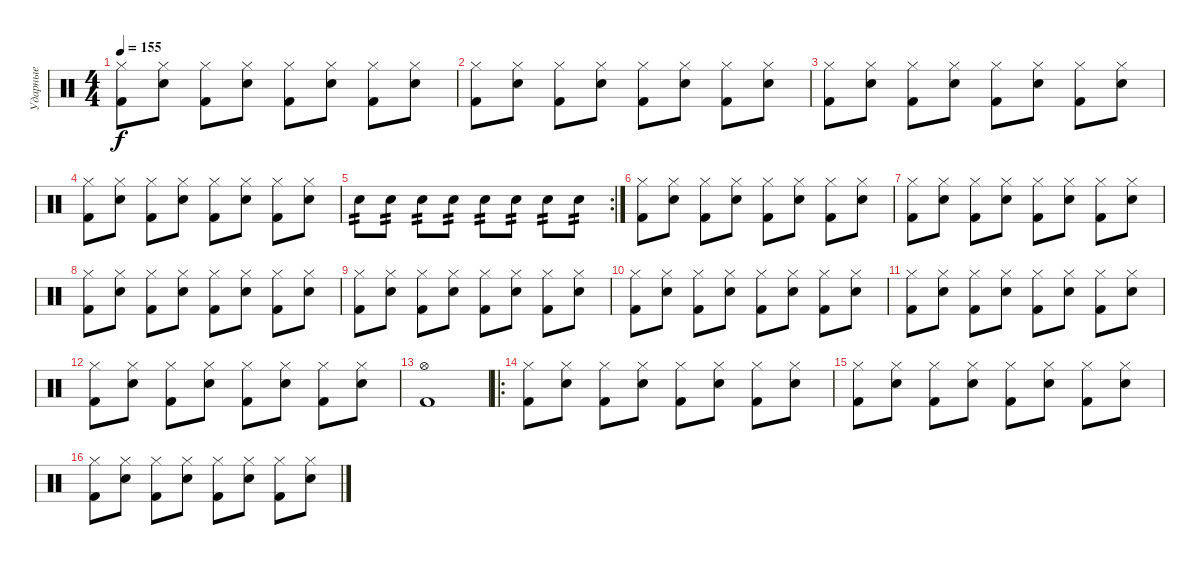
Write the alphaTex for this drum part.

\track ("Ударные" "Ударные") {instrument percussion}
\staff {score}
\articulation defaults
\ts (4 4)
\tempo 155
\clef neutral
\ks c
("Hi-Hat (closed)" "Kick (hit) 2").8{dy f} ("Hi-Hat (closed)" "Electric Snare (hit)").8 ("Hi-Hat (closed)" "Kick (hit) 2").8 ("Hi-Hat (closed)" "Electric Snare (hit)").8 ("Hi-Hat (closed)" "Kick (hit) 2").8 ("Hi-Hat (closed)" "Electric Snare (hit)").8 ("Hi-Hat (closed)" "Kick (hit) 2").8 ("Hi-Hat (closed)" "Electric Snare (hit)").8 |
("Hi-Hat (closed)" "Kick (hit) 2").8 ("Hi-Hat (closed)" "Electric Snare (hit)").8 ("Hi-Hat (closed)" "Kick (hit) 2").8 ("Hi-Hat (closed)" "Electric Snare (hit)").8 ("Hi-Hat (closed)" "Kick (hit) 2").8 ("Hi-Hat (closed)" "Electric Snare (hit)").8 ("Hi-Hat (closed)" "Kick (hit) 2").8 ("Hi-Hat (closed)" "Electric Snare (hit)").8 |
("Hi-Hat (closed)" "Kick (hit) 2").8 ("Hi-Hat (closed)" "Electric Snare (hit)").8 ("Hi-Hat (closed)" "Kick (hit) 2").8 ("Hi-Hat (closed)" "Electric Snare (hit)").8 ("Hi-Hat (closed)" "Kick (hit) 2").8 ("Hi-Hat (closed)" "Electric Snare (hit)").8 ("Hi-Hat (closed)" "Kick (hit) 2").8 ("Hi-Hat (closed)" "Electric Snare (hit)").8 |
("Hi-Hat (closed)" "Kick (hit) 2").8 ("Hi-Hat (closed)" "Electric Snare (hit)").8 ("Hi-Hat (closed)" "Kick (hit) 2").8 ("Hi-Hat (closed)" "Electric Snare (hit)").8 ("Hi-Hat (closed)" "Kick (hit) 2").8 ("Hi-Hat (closed)" "Electric Snare (hit)").8 ("Hi-Hat (closed)" "Kick (hit) 2").8 ("Hi-Hat (closed)" "Electric Snare (hit)").8 |
\rc 2 "Electric Snare (hit)".8{tp 2} "Electric Snare (hit)".8{tp 2} "Electric Snare (hit)".8{tp 2} "Electric Snare (hit)".8{tp 2} "Snare (hit) 2".8{tp 2} "Snare (hit) 2".8{tp 2} "Snare (hit) 2".8{tp 2} "Snare (hit) 2".8{tp 2}
|
("Hi-Hat (closed)" "Kick (hit) 2").8 ("Hi-Hat (closed)" "Electric Snare (hit)").8 ("Hi-Hat (closed)" "Kick (hit) 2").8 ("Hi-Hat (closed)" "Electric Snare (hit)").8 ("Hi-Hat (closed)" "Kick (hit) 2").8 ("Hi-Hat (closed)" "Electric Snare (hit)").8 ("Hi-Hat (closed)" "Kick (hit) 2").8 ("Hi-Hat (closed)" "Electric Snare (hit)").8 |
("Hi-Hat (closed)" "Kick (hit) 2").8 ("Hi-Hat (closed)" "Electric Snare (hit)").8 ("Hi-Hat (closed)" "Kick (hit) 2").8 ("Hi-Hat (closed)" "Electric Snare (hit)").8 ("Hi-Hat (closed)" "Kick (hit) 2").8 ("Hi-Hat (closed)" "Electric Snare (hit)").8 ("Hi-Hat (closed)" "Kick (hit) 2").8 ("Hi-Hat (closed)" "Electric Snare (hit)").8 |
("Hi-Hat (closed)" "Kick (hit) 2").8 ("Hi-Hat (closed)" "Electric Snare (hit)").8 ("Hi-Hat (closed)" "Kick (hit) 2").8 ("Hi-Hat (closed)" "Electric Snare (hit)").8 ("Hi-Hat (closed)" "Kick (hit) 2").8 ("Hi-Hat (closed)" "Electric Snare (hit)").8 ("Hi-Hat (closed)" "Kick (hit) 2").8 ("Hi-Hat (closed)" "Electric Snare (hit)").8 |
("Hi-Hat (closed)" "Kick (hit) 2").8 ("Hi-Hat (closed)" "Electric Snare (hit)").8 ("Hi-Hat (closed)" "Kick (hit) 2").8 ("Hi-Hat (closed)" "Electric Snare (hit)").8 ("Hi-Hat (closed)" "Kick (hit) 2").8 ("Hi-Hat (closed)" "Electric Snare (hit)").8 ("Hi-Hat (closed)" "Kick (hit) 2").8 ("Hi-Hat (closed)" "Electric Snare (hit)").8 |
("Hi-Hat (closed)" "Kick (hit) 2").8 ("Hi-Hat (closed)" "Electric Snare (hit)").8 ("Hi-Hat (closed)" "Kick (hit) 2").8 ("Hi-Hat (closed)" "Electric Snare (hit)").8 ("Hi-Hat (closed)" "Kick (hit) 2").8 ("Hi-Hat (closed)" "Electric Snare (hit)").8 ("Hi-Hat (closed)" "Kick (hit) 2").8 ("Hi-Hat (closed)" "Electric Snare (hit)").8 |
("Hi-Hat (closed)" "Kick (hit) 2").8 ("Hi-Hat (closed)" "Electric Snare (hit)").8 ("Hi-Hat (closed)" "Kick (hit) 2").8 ("Hi-Hat (closed)" "Electric Snare (hit)").8 ("Hi-Hat (closed)" "Kick (hit) 2").8 ("Hi-Hat (closed)" "Electric Snare (hit)").8 ("Hi-Hat (closed)" "Kick (hit) 2").8 ("Hi-Hat (closed)" "Electric Snare (hit)").8 |
("Hi-Hat (closed)" "Kick (hit) 2").8 ("Hi-Hat (closed)" "Electric Snare (hit)").8 ("Hi-Hat (closed)" "Kick (hit) 2").8 ("Hi-Hat (closed)" "Electric Snare (hit)").8 ("Hi-Hat (closed)" "Kick (hit) 2").8 ("Hi-Hat (closed)" "Electric Snare (hit)").8 ("Hi-Hat (closed)" "Kick (hit) 2").8 ("Hi-Hat (closed)" "Electric Snare (hit)").8 |
("Hi-Hat (open)" "Kick (hit) 2").1 |
\ro
("Hi-Hat (closed)" "Kick (hit) 2").8 ("Hi-Hat (closed)" "Electric Snare (hit)").8 ("Hi-Hat (closed)" "Kick (hit) 2").8 ("Hi-Hat (closed)" "Electric Snare (hit)").8 ("Hi-Hat (closed)" "Kick (hit) 2").8 ("Hi-Hat (closed)" "Electric Snare (hit)").8 ("Hi-Hat (closed)" "Kick (hit) 2").8 ("Hi-Hat (closed)" "Electric Snare (hit)").8 |
("Hi-Hat (closed)" "Kick (hit) 2").8 ("Hi-Hat (closed)" "Electric Snare (hit)").8 ("Hi-Hat (closed)" "Kick (hit) 2").8 ("Hi-Hat (closed)" "Electric Snare (hit)").8 ("Hi-Hat (closed)" "Kick (hit) 2").8 ("Hi-Hat (closed)" "Electric Snare (hit)").8 ("Hi-Hat (closed)" "Kick (hit) 2").8 ("Hi-Hat (closed)" "Electric Snare (hit)").8 |
("Hi-Hat (closed)" "Kick (hit) 2").8 ("Hi-Hat (closed)" "Electric Snare (hit)").8 ("Hi-Hat (closed)" "Kick (hit) 2").8 ("Hi-Hat (closed)" "Electric Snare (hit)").8 ("Hi-Hat (closed)" "Kick (hit) 2").8 ("Hi-Hat (closed)" "Electric Snare (hit)").8 ("Hi-Hat (closed)" "Kick (hit) 2").8 ("Hi-Hat (closed)" "Electric Snare (hit)").8
